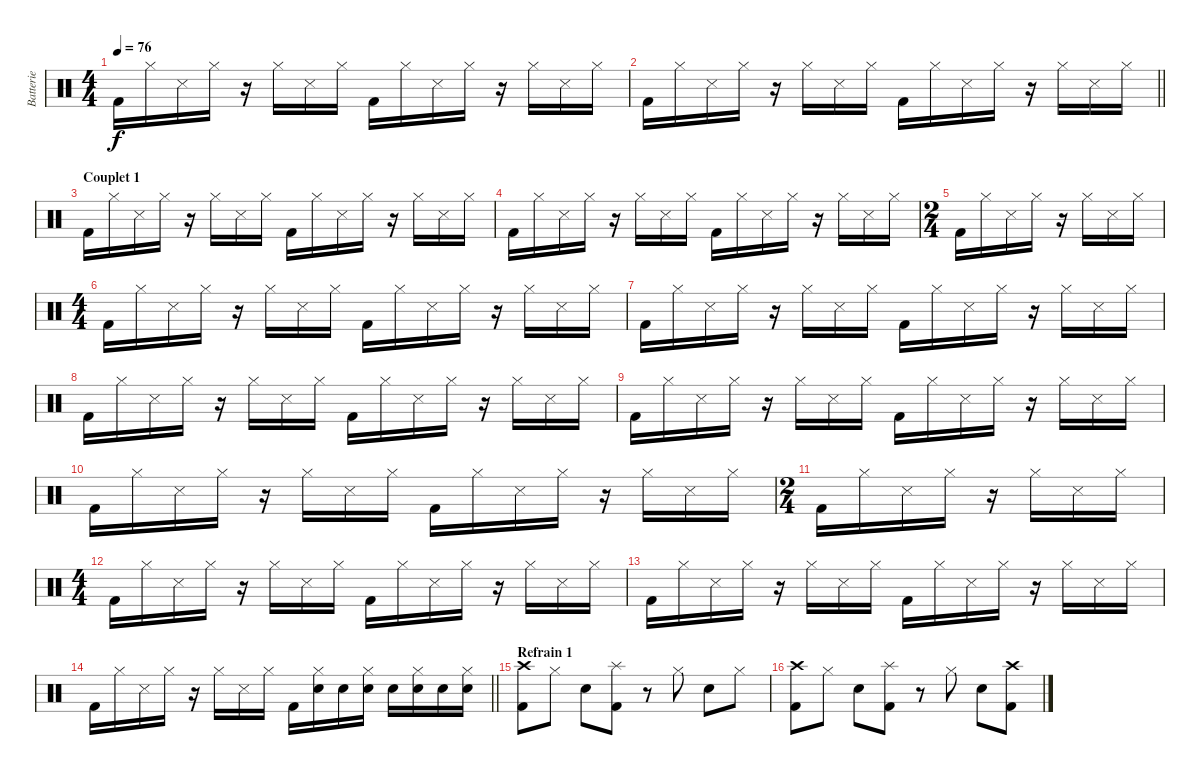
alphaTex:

\track ("Batterie" "Batterie") {instrument percussion}
\staff {score}
\articulation defaults
\ts (4 4)
\tempo 76
\clef neutral
\ks c "Kick (hit) 2".16{dy f} "Hi-Hat (closed)".16 "Snare (side stick) 3".16 "Hi-Hat (closed)".16
r.16 "Hi-Hat (closed)".16 "Snare (side stick) 3".16 "Hi-Hat (closed)".16 "Kick (hit) 2".16 "Hi-Hat (closed)".16 "Snare (side stick) 3".16 "Hi-Hat (closed)".16 r.16 "Hi-Hat (closed)".16 "Snare (side stick) 3".16 "Hi-Hat (closed)".16 |
\barLineRight lightlight "Kick (hit) 2".16 "Hi-Hat (closed)".16 "Snare (side stick) 3".16 "Hi-Hat (closed)".16
r.16 "Hi-Hat (closed)".16 "Snare (side stick) 3".16 "Hi-Hat (closed)".16 "Kick (hit) 2".16 "Hi-Hat (closed)".16 "Snare (side stick) 3".16 "Hi-Hat (closed)".16 r.16 "Hi-Hat (closed)".16 "Snare (side stick) 3".16 "Hi-Hat (closed)".16 |
\section ("" "Couplet 1")
"Kick (hit) 2".16 "Hi-Hat (closed)".16 "Snare (side stick) 3".16 "Hi-Hat (closed)".16 r.16 "Hi-Hat (closed)".16 "Snare (side stick) 3".16 "Hi-Hat (closed)".16 "Kick (hit) 2".16 "Hi-Hat (closed)".16 "Snare (side stick) 3".16 "Hi-Hat (closed)".16 r.16 "Hi-Hat (closed)".16 "Snare (side stick) 3".16 "Hi-Hat (closed)".16 |
"Kick (hit) 2".16 "Hi-Hat (closed)".16 "Snare (side stick) 3".16 "Hi-Hat (closed)".16 r.16 "Hi-Hat (closed)".16 "Snare (side stick) 3".16 "Hi-Hat (closed)".16 "Kick (hit) 2".16 "Hi-Hat (closed)".16 "Snare (side stick) 3".16 "Hi-Hat (closed)".16 r.16 "Hi-Hat (closed)".16 "Snare (side stick) 3".16 "Hi-Hat (closed)".16 |
\ts (2 4)
"Kick (hit) 2".16 "Hi-Hat (closed)".16 "Snare (side stick) 3".16 "Hi-Hat (closed)".16 r.16 "Hi-Hat (closed)".16 "Snare (side stick) 3".16 "Hi-Hat (closed)".16 |
\ts (4 4)
"Kick (hit) 2".16 "Hi-Hat (closed)".16 "Snare (side stick) 3".16 "Hi-Hat (closed)".16 r.16 "Hi-Hat (closed)".16 "Snare (side stick) 3".16 "Hi-Hat (closed)".16 "Kick (hit) 2".16 "Hi-Hat (closed)".16 "Snare (side stick) 3".16 "Hi-Hat (closed)".16 r.16 "Hi-Hat (closed)".16 "Snare (side stick) 3".16 "Hi-Hat (closed)".16 |
"Kick (hit) 2".16 "Hi-Hat (closed)".16 "Snare (side stick) 3".16 "Hi-Hat (closed)".16 r.16 "Hi-Hat (closed)".16 "Snare (side stick) 3".16 "Hi-Hat (closed)".16 "Kick (hit) 2".16 "Hi-Hat (closed)".16 "Snare (side stick) 3".16 "Hi-Hat (closed)".16 r.16 "Hi-Hat (closed)".16 "Snare (side stick) 3".16 "Hi-Hat (closed)".16 |
"Kick (hit) 2".16 "Hi-Hat (closed)".16 "Snare (side stick) 3".16 "Hi-Hat (closed)".16 r.16 "Hi-Hat (closed)".16 "Snare (side stick) 3".16 "Hi-Hat (closed)".16 "Kick (hit) 2".16 "Hi-Hat (closed)".16 "Snare (side stick) 3".16 "Hi-Hat (closed)".16 r.16 "Hi-Hat (closed)".16 "Snare (side stick) 3".16 "Hi-Hat (closed)".16 |
"Kick (hit) 2".16 "Hi-Hat (closed)".16 "Snare (side stick) 3".16 "Hi-Hat (closed)".16 r.16 "Hi-Hat (closed)".16 "Snare (side stick) 3".16 "Hi-Hat (closed)".16 "Kick (hit) 2".16 "Hi-Hat (closed)".16 "Snare (side stick) 3".16 "Hi-Hat (closed)".16 r.16 "Hi-Hat (closed)".16 "Snare (side stick) 3".16 "Hi-Hat (closed)".16 |
"Kick (hit) 2".16 "Hi-Hat (closed)".16 "Snare (side stick) 3".16 "Hi-Hat (closed)".16 r.16 "Hi-Hat (closed)".16 "Snare (side stick) 3".16 "Hi-Hat (closed)".16 "Kick (hit) 2".16 "Hi-Hat (closed)".16 "Snare (side stick) 3".16 "Hi-Hat (closed)".16 r.16 "Hi-Hat (closed)".16 "Snare (side stick) 3".16 "Hi-Hat (closed)".16 |
\ts (2 4)
"Kick (hit) 2".16 "Hi-Hat (closed)".16 "Snare (side stick) 3".16 "Hi-Hat (closed)".16 r.16 "Hi-Hat (closed)".16 "Snare (side stick) 3".16 "Hi-Hat (closed)".16 |
\ts (4 4)
"Kick (hit) 2".16 "Hi-Hat (closed)".16 "Snare (side stick) 3".16 "Hi-Hat (closed)".16 r.16 "Hi-Hat (closed)".16 "Snare (side stick) 3".16 "Hi-Hat (closed)".16 "Kick (hit) 2".16 "Hi-Hat (closed)".16 "Snare (side stick) 3".16 "Hi-Hat (closed)".16 r.16 "Hi-Hat (closed)".16 "Snare (side stick) 3".16 "Hi-Hat (closed)".16 |
"Kick (hit) 2".16 "Hi-Hat (closed)".16 "Snare (side stick) 3".16 "Hi-Hat (closed)".16 r.16 "Hi-Hat (closed)".16 "Snare (side stick) 3".16 "Hi-Hat (closed)".16 "Kick (hit) 2".16 "Hi-Hat (closed)".16 "Snare (side stick) 3".16 "Hi-Hat (closed)".16 r.16 "Hi-Hat (closed)".16 "Snare (side stick) 3".16 "Hi-Hat (closed)".16 |
\barLineRight lightlight "Kick (hit) 2".16 "Hi-Hat (closed)".16 "Snare (side stick) 3".16 "Hi-Hat (closed)".16
r.16 "Hi-Hat (closed)".16 "Snare (side stick) 3".16 "Hi-Hat (closed)".16 "Kick (hit) 2".16 ("Hi-Hat (closed)" "Electric Snare (hit)").16 "Electric Snare (hit)".16 ("Hi-Hat (closed)" "Electric Snare (hit)").16 "Electric Snare (hit)".16 ("Hi-Hat (closed)" "Electric Snare (hit)").16 "Electric Snare (hit)".16 ("Hi-Hat (closed)" "Electric Snare (hit)").16 |
\section ("" "Refrain 1")
("Crash high (hit)" "Kick (hit) 2").8 "Hi-Hat (closed)".8 "Electric Snare (hit)".8 ("Splash (hit)" "Kick (hit) 2").8 r.8 "Hi-Hat (closed)".8 "Electric Snare (hit)".8 "Hi-Hat (closed)".8 |
("Crash high (hit)" "Kick (hit) 2").8 "Hi-Hat (closed)".8 "Electric Snare (hit)".8 ("Splash (hit)" "Kick (hit) 2").8 r.8 "Hi-Hat (closed)".8 "Electric Snare (hit)".8 ("Crash high (hit)" "Kick (hit) 2").8
